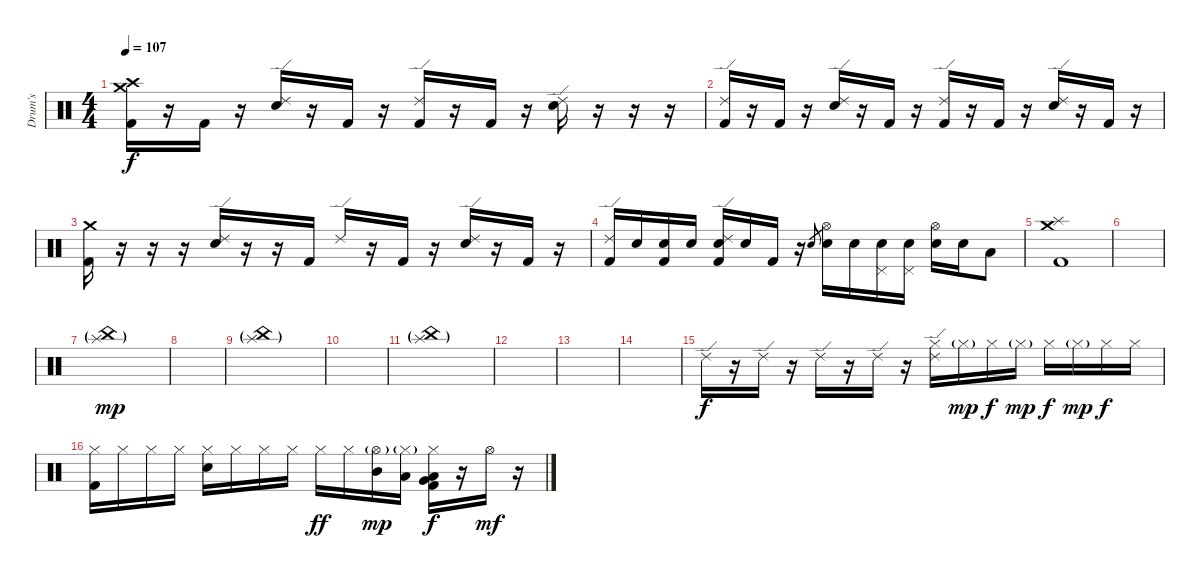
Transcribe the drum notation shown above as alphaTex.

\track ("Drum's" "Drum's") {instrument percussion}
\staff {score}
\articulation defaults
\ts (4 4)
\tempo 107
\clef neutral
\ks c
("Crash medium (hit)" "Crash high (hit)" "Kick (hit) 2").16{dy f} r.16 "Kick (hit) 2".16 r.16 ("Ride (edge) 2" "Snare (hit) 2").16 r.16 "Kick (hit) 2".16 r.16 ("Ride (edge) 2" "Kick (hit) 2").16 r.16 "Kick (hit) 2".16 r.16 ("Ride (edge) 2" "Snare (hit) 2").16 r.16 r.16 r.16 |
("Ride (edge) 2" "Kick (hit) 2").16 r.16 "Kick (hit) 2".16 r.16 ("Ride (edge) 2" "Snare (hit) 2").16 r.16 "Kick (hit) 2".16 r.16 ("Ride (edge) 2" "Kick (hit) 2").16 r.16 "Kick (hit) 2".16 r.16 ("Ride (edge) 2" "Snare (hit) 2").16 r.16 "Kick (hit) 2".16 r.16 |
("Crash medium (hit)" "Kick (hit) 2").16 r.16 r.16 r.16 ("Ride (edge) 2" "Snare (hit) 2").16 r.16 r.16 "Kick (hit) 2".16 "Ride (edge) 2".16 r.16 "Kick (hit) 2".16 r.16 ("Ride (edge) 2" "Snare (hit) 2").16 r.16 "Kick (hit) 2".16 r.16 |
("Ride (edge) 2" "Kick (hit) 2").16 "Snare (hit) 2".16 ("Snare (hit) 2" "Kick (hit) 2").16 "Snare (hit) 2".16 ("Ride (edge) 2" "Snare (hit) 2" "Kick (hit) 2").16 "Snare (hit) 2".16 "Kick (hit) 2".16 r.16 "Snare (hit) 2".8{gr} ("Hi-Hat (open)" "Snare (hit) 2").16 "Snare (hit) 2".16 ("Pedal Hi-Hat (hit)" "Snare (hit) 2").16 ("Pedal Hi-Hat (hit)" "Snare (hit) 2").16 ("Hi-Hat (open)" "Snare (hit) 2").16 "Snare (hit) 2".16 "Low Floor Tom (hit)".8 |
("Crash medium (hit)" "Splash (hit)" "Kick (hit) 2").1 |
|
("Splash (hit)"{g} "China (hit)"{g}).1{dy mp} |
|
("Splash (hit)"{g} "China (hit)"{g}).1 |
|
("Splash (hit)"{g} "China (hit)"{g}).1 |
|
|
|
"Ride (edge) 2".16{dy f volume 12} r.16 "Ride (edge) 2".16 r.16 "Ride (edge) 2".16 r.16 "Ride (edge) 2".16 r.16 ("Hi-Hat (closed)" "Ride (edge) 2").16 "Hi-Hat (closed)"{g}.16{dy mp} "Hi-Hat (closed)".16{dy f} "Hi-Hat (closed)"{g}.16{dy mp} "Hi-Hat (closed)".16{dy f} "Hi-Hat (closed)"{g}.16{dy mp} "Hi-Hat (closed)".16{dy f} "Hi-Hat (closed)".16 |
("Hi-Hat (closed)" "Kick (hit) 2").16 "Hi-Hat (closed)".16 "Hi-Hat (closed)".16 "Hi-Hat (closed)".16 ("Hi-Hat (closed)" "Snare (hit) 2").16 "Hi-Hat (closed)".16 "Hi-Hat (closed)".16 "Hi-Hat (closed)".16 "Hi-Hat (closed)".16{dy ff} "Hi-Hat (closed)".16 ("Hi-Hat (open)"{g} "Mid Tom (hit)").16{dy mp} ("Hi-Hat (closed)"{g} "Low Tom (hit)").16 ("Hi-Hat (closed)" "Very Low Tom (hit)" "Low Floor Tom (hit)" "Kick (hit) 2").16{dy f} r.16 "Hi-Hat (open)".16{dy mf} r.16
